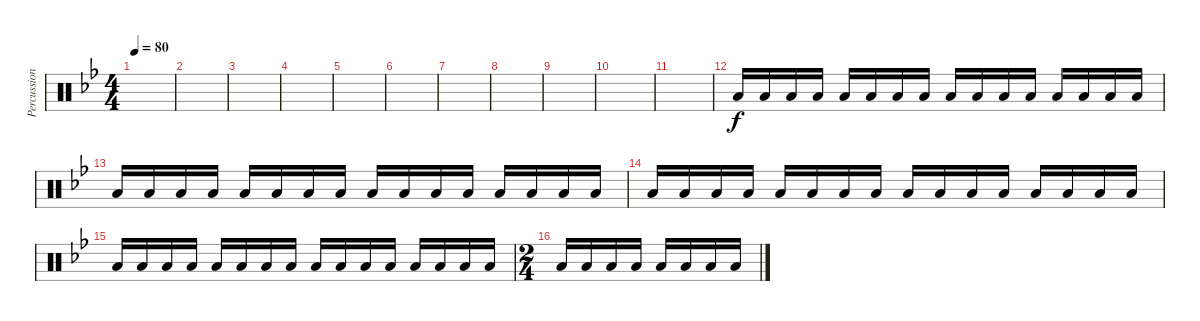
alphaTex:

\track ("Percussion" "Percussion") {instrument percussion}
\staff {score}
\articulation defaults
\ts (4 4)
\tempo 80
\clef neutral
\ks bb
|
|
|
|
|
|
|
|
|
|
|
"Low Floor Tom (hit)".16 "Low Floor Tom (hit)".16 "Low Floor Tom (hit)".16 "Low Floor Tom (hit)".16 "Low Floor Tom (hit)".16 "Low Floor Tom (hit)".16 "Low Floor Tom (hit)".16 "Low Floor Tom (hit)".16 "Low Floor Tom (hit)".16 "Low Floor Tom (hit)".16 "Low Floor Tom (hit)".16 "Low Floor Tom (hit)".16 "Low Floor Tom (hit)".16 "Low Floor Tom (hit)".16 "Low Floor Tom (hit)".16 "Low Floor Tom (hit)".16 |
"Low Floor Tom (hit)".16 "Low Floor Tom (hit)".16 "Low Floor Tom (hit)".16 "Low Floor Tom (hit)".16 "Low Floor Tom (hit)".16 "Low Floor Tom (hit)".16 "Low Floor Tom (hit)".16 "Low Floor Tom (hit)".16 "Low Floor Tom (hit)".16 "Low Floor Tom (hit)".16 "Low Floor Tom (hit)".16 "Low Floor Tom (hit)".16 "Low Floor Tom (hit)".16 "Low Floor Tom (hit)".16 "Low Floor Tom (hit)".16 "Low Floor Tom (hit)".16 |
"Low Floor Tom (hit)".16 "Low Floor Tom (hit)".16 "Low Floor Tom (hit)".16 "Low Floor Tom (hit)".16 "Low Floor Tom (hit)".16 "Low Floor Tom (hit)".16 "Low Floor Tom (hit)".16 "Low Floor Tom (hit)".16 "Low Floor Tom (hit)".16 "Low Floor Tom (hit)".16 "Low Floor Tom (hit)".16 "Low Floor Tom (hit)".16 "Low Floor Tom (hit)".16 "Low Floor Tom (hit)".16 "Low Floor Tom (hit)".16 "Low Floor Tom (hit)".16 |
"Low Floor Tom (hit)".16 "Low Floor Tom (hit)".16 "Low Floor Tom (hit)".16 "Low Floor Tom (hit)".16 "Low Floor Tom (hit)".16 "Low Floor Tom (hit)".16 "Low Floor Tom (hit)".16 "Low Floor Tom (hit)".16 "Low Floor Tom (hit)".16 "Low Floor Tom (hit)".16 "Low Floor Tom (hit)".16 "Low Floor Tom (hit)".16 "Low Floor Tom (hit)".16 "Low Floor Tom (hit)".16 "Low Floor Tom (hit)".16 "Low Floor Tom (hit)".16 |
\ts (2 4)
"Low Floor Tom (hit)".16 "Low Floor Tom (hit)".16 "Low Floor Tom (hit)".16 "Low Floor Tom (hit)".16 "Low Floor Tom (hit)".16 "Low Floor Tom (hit)".16 "Low Floor Tom (hit)".16 "Low Floor Tom (hit)".16
